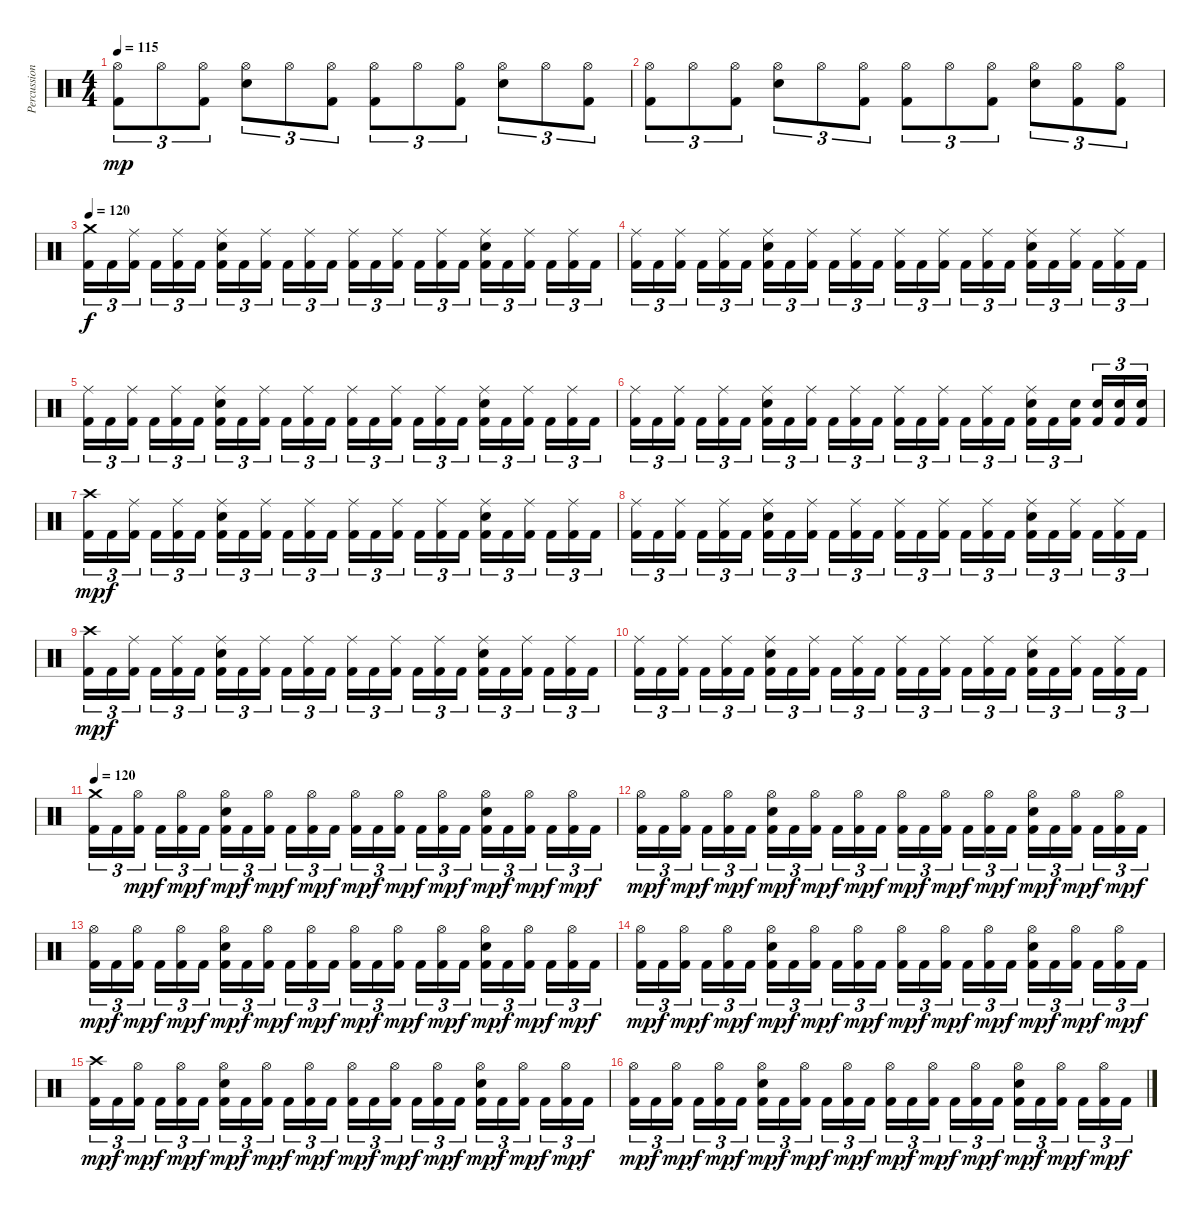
\track ("Percussion" "Percussion") {instrument percussion}
\staff {score}
\articulation defaults
\ts (4 4)
\tempo 115
\clef neutral
\ks c
("Hi-Hat (open)" "Kick (hit) 2").8{tu (3 2) dy mp} "Hi-Hat (open)".8{tu (3 2)} ("Hi-Hat (open)" "Kick (hit) 2").8{tu (3 2)} ("Hi-Hat (open)" "Electric Snare (hit)").8{tu (3 2)} "Hi-Hat (open)".8{tu (3 2)} ("Hi-Hat (open)" "Kick (hit) 2").8{tu (3 2)} ("Hi-Hat (open)" "Kick (hit) 2").8{tu (3 2)} "Hi-Hat (open)".8{tu (3 2)} ("Hi-Hat (open)" "Kick (hit) 2").8{tu (3 2)} ("Hi-Hat (open)" "Electric Snare (hit)").8{tu (3 2)} "Hi-Hat (open)".8{tu (3 2)} ("Hi-Hat (open)" "Kick (hit) 2").8{tu (3 2)} |
("Hi-Hat (open)" "Kick (hit) 2").8{tu (3 2)} "Hi-Hat (open)".8{tu (3 2)} ("Hi-Hat (open)" "Kick (hit) 2").8{tu (3 2)} ("Hi-Hat (open)" "Electric Snare (hit)").8{tu (3 2)} "Hi-Hat (open)".8{tu (3 2)} ("Hi-Hat (open)" "Kick (hit) 2").8{tu (3 2)} ("Hi-Hat (open)" "Kick (hit) 2").8{tu (3 2)} "Hi-Hat (open)".8{tu (3 2)} ("Hi-Hat (open)" "Kick (hit) 2").8{tu (3 2)} ("Hi-Hat (open)" "Electric Snare (hit)").8{tu (3 2)} ("Hi-Hat (open)" "Kick (hit) 2").8{tu (3 2)} ("Hi-Hat (open)" "Kick (hit) 2").8{tu (3 2)} |
\tempo 120
("Crash medium (hit)" "Kick (hit) 2").16{tu (3 2) dy f} "Kick (hit) 2".16{tu (3 2)} ("Ride (middle)" "Kick (hit) 2").16{tu (3 2)} "Kick (hit) 2".16{tu (3 2)} ("Ride (middle)" "Kick (hit) 2").16{tu (3 2)} "Kick (hit) 2".16{tu (3 2)} ("Ride (middle)" "Electric Snare (hit)" "Kick (hit) 2").16{tu (3 2)} "Kick (hit) 2".16{tu (3 2)} ("Ride (middle)" "Kick (hit) 2").16{tu (3 2)} "Kick (hit) 2".16{tu (3 2)} ("Ride (middle)" "Kick (hit) 2").16{tu (3 2)} "Kick (hit) 2".16{tu (3 2)} ("Ride (middle)" "Kick (hit) 2").16{tu (3 2)} "Kick (hit) 2".16{tu (3 2)} ("Ride (middle)" "Kick (hit) 2").16{tu (3 2)} "Kick (hit) 2".16{tu (3 2)} ("Ride (middle)" "Kick (hit) 2").16{tu (3 2)} "Kick (hit) 2".16{tu (3 2)} ("Ride (middle)" "Electric Snare (hit)" "Kick (hit) 2").16{tu (3 2)} "Kick (hit) 2".16{tu (3 2)} ("Ride (middle)" "Kick (hit) 2").16{tu (3 2)} "Kick (hit) 2".16{tu (3 2)} ("Ride (middle)" "Kick (hit) 2").16{tu (3 2)} "Kick (hit) 2".16{tu (3 2)} |
("Ride (middle)" "Kick (hit) 2").16{tu (3 2)} "Kick (hit) 2".16{tu (3 2)} ("Ride (middle)" "Kick (hit) 2").16{tu (3 2)} "Kick (hit) 2".16{tu (3 2)} ("Ride (middle)" "Kick (hit) 2").16{tu (3 2)} "Kick (hit) 2".16{tu (3 2)} ("Ride (middle)" "Electric Snare (hit)" "Kick (hit) 2").16{tu (3 2)} "Kick (hit) 2".16{tu (3 2)} ("Ride (middle)" "Kick (hit) 2").16{tu (3 2)} "Kick (hit) 2".16{tu (3 2)} ("Ride (middle)" "Kick (hit) 2").16{tu (3 2)} "Kick (hit) 2".16{tu (3 2)} ("Ride (middle)" "Kick (hit) 2").16{tu (3 2)} "Kick (hit) 2".16{tu (3 2)} ("Ride (middle)" "Kick (hit) 2").16{tu (3 2)} "Kick (hit) 2".16{tu (3 2)} ("Ride (middle)" "Kick (hit) 2").16{tu (3 2)} "Kick (hit) 2".16{tu (3 2)} ("Ride (middle)" "Electric Snare (hit)" "Kick (hit) 2").16{tu (3 2)} "Kick (hit) 2".16{tu (3 2)} ("Ride (middle)" "Kick (hit) 2").16{tu (3 2)} "Kick (hit) 2".16{tu (3 2)} ("Ride (middle)" "Kick (hit) 2").16{tu (3 2)} "Kick (hit) 2".16{tu (3 2)} |
("Ride (middle)" "Kick (hit) 2").16{tu (3 2)} "Kick (hit) 2".16{tu (3 2)} ("Ride (middle)" "Kick (hit) 2").16{tu (3 2)} "Kick (hit) 2".16{tu (3 2)} ("Ride (middle)" "Kick (hit) 2").16{tu (3 2)} "Kick (hit) 2".16{tu (3 2)} ("Ride (middle)" "Electric Snare (hit)" "Kick (hit) 2").16{tu (3 2)} "Kick (hit) 2".16{tu (3 2)} ("Ride (middle)" "Kick (hit) 2").16{tu (3 2)} "Kick (hit) 2".16{tu (3 2)} ("Ride (middle)" "Kick (hit) 2").16{tu (3 2)} "Kick (hit) 2".16{tu (3 2)} ("Ride (middle)" "Kick (hit) 2").16{tu (3 2)} "Kick (hit) 2".16{tu (3 2)} ("Ride (middle)" "Kick (hit) 2").16{tu (3 2)} "Kick (hit) 2".16{tu (3 2)} ("Ride (middle)" "Kick (hit) 2").16{tu (3 2)} "Kick (hit) 2".16{tu (3 2)} ("Ride (middle)" "Electric Snare (hit)" "Kick (hit) 2").16{tu (3 2)} "Kick (hit) 2".16{tu (3 2)} ("Ride (middle)" "Kick (hit) 2").16{tu (3 2)} "Kick (hit) 2".16{tu (3 2)} ("Ride (middle)" "Kick (hit) 2").16{tu (3 2)} "Kick (hit) 2".16{tu (3 2)} |
("Ride (middle)" "Kick (hit) 2").16{tu (3 2)} "Kick (hit) 2".16{tu (3 2)} ("Ride (middle)" "Kick (hit) 2").16{tu (3 2)} "Kick (hit) 2".16{tu (3 2)} ("Ride (middle)" "Kick (hit) 2").16{tu (3 2)} "Kick (hit) 2".16{tu (3 2)} ("Ride (middle)" "Electric Snare (hit)" "Kick (hit) 2").16{tu (3 2)} "Kick (hit) 2".16{tu (3 2)} ("Ride (middle)" "Kick (hit) 2").16{tu (3 2)} "Kick (hit) 2".16{tu (3 2)} ("Ride (middle)" "Kick (hit) 2").16{tu (3 2)} "Kick (hit) 2".16{tu (3 2)} ("Ride (middle)" "Kick (hit) 2").16{tu (3 2)} "Kick (hit) 2".16{tu (3 2)} ("Ride (middle)" "Kick (hit) 2").16{tu (3 2)} "Kick (hit) 2".16{tu (3 2)} ("Ride (middle)" "Kick (hit) 2").16{tu (3 2)} "Kick (hit) 2".16{tu (3 2)} ("Ride (middle)" "Electric Snare (hit)" "Kick (hit) 2").16{tu (3 2)} "Kick (hit) 2".16{tu (3 2)} ("Electric Snare (hit)" "Kick (hit) 2").16{tu (3 2)} ("Electric Snare (hit)" "Kick (hit) 2").16{tu (3 2)} ("Electric Snare (hit)" "Kick (hit) 2").16{tu (3 2)} ("Electric Snare (hit)" "Kick (hit) 2").16{tu (3 2)} |
("Crash high (hit)" "Kick (hit) 2").16{tu (3 2) dy mp} "Kick (hit) 2".16{tu (3 2) dy f} ("Ride (middle)" "Kick (hit) 2").16{tu (3 2)} "Kick (hit) 2".16{tu (3 2)} ("Ride (middle)" "Kick (hit) 2").16{tu (3 2)} "Kick (hit) 2".16{tu (3 2)} ("Ride (middle)" "Electric Snare (hit)" "Kick (hit) 2").16{tu (3 2)} "Kick (hit) 2".16{tu (3 2)} ("Ride (middle)" "Kick (hit) 2").16{tu (3 2)} "Kick (hit) 2".16{tu (3 2)} ("Ride (middle)" "Kick (hit) 2").16{tu (3 2)} "Kick (hit) 2".16{tu (3 2)} ("Ride (middle)" "Kick (hit) 2").16{tu (3 2)} "Kick (hit) 2".16{tu (3 2)} ("Ride (middle)" "Kick (hit) 2").16{tu (3 2)} "Kick (hit) 2".16{tu (3 2)} ("Ride (middle)" "Kick (hit) 2").16{tu (3 2)} "Kick (hit) 2".16{tu (3 2)} ("Ride (middle)" "Electric Snare (hit)" "Kick (hit) 2").16{tu (3 2)} "Kick (hit) 2".16{tu (3 2)} ("Ride (middle)" "Kick (hit) 2").16{tu (3 2)} "Kick (hit) 2".16{tu (3 2)} ("Ride (middle)" "Kick (hit) 2").16{tu (3 2)} "Kick (hit) 2".16{tu (3 2)} |
("Ride (middle)" "Kick (hit) 2").16{tu (3 2)} "Kick (hit) 2".16{tu (3 2)} ("Ride (middle)" "Kick (hit) 2").16{tu (3 2)} "Kick (hit) 2".16{tu (3 2)} ("Ride (middle)" "Kick (hit) 2").16{tu (3 2)} "Kick (hit) 2".16{tu (3 2)} ("Ride (middle)" "Electric Snare (hit)" "Kick (hit) 2").16{tu (3 2)} "Kick (hit) 2".16{tu (3 2)} ("Ride (middle)" "Kick (hit) 2").16{tu (3 2)} "Kick (hit) 2".16{tu (3 2)} ("Ride (middle)" "Kick (hit) 2").16{tu (3 2)} "Kick (hit) 2".16{tu (3 2)} ("Ride (middle)" "Kick (hit) 2").16{tu (3 2)} "Kick (hit) 2".16{tu (3 2)} ("Ride (middle)" "Kick (hit) 2").16{tu (3 2)} "Kick (hit) 2".16{tu (3 2)} ("Ride (middle)" "Kick (hit) 2").16{tu (3 2)} "Kick (hit) 2".16{tu (3 2)} ("Ride (middle)" "Electric Snare (hit)" "Kick (hit) 2").16{tu (3 2)} "Kick (hit) 2".16{tu (3 2)} ("Ride (middle)" "Kick (hit) 2").16{tu (3 2)} "Kick (hit) 2".16{tu (3 2)} ("Ride (middle)" "Kick (hit) 2").16{tu (3 2)} "Kick (hit) 2".16{tu (3 2)} |
("Crash high (hit)" "Kick (hit) 2").16{tu (3 2) dy mp} "Kick (hit) 2".16{tu (3 2) dy f} ("Ride (middle)" "Kick (hit) 2").16{tu (3 2)} "Kick (hit) 2".16{tu (3 2)} ("Ride (middle)" "Kick (hit) 2").16{tu (3 2)} "Kick (hit) 2".16{tu (3 2)} ("Ride (middle)" "Electric Snare (hit)" "Kick (hit) 2").16{tu (3 2)} "Kick (hit) 2".16{tu (3 2)} ("Ride (middle)" "Kick (hit) 2").16{tu (3 2)} "Kick (hit) 2".16{tu (3 2)} ("Ride (middle)" "Kick (hit) 2").16{tu (3 2)} "Kick (hit) 2".16{tu (3 2)} ("Ride (middle)" "Kick (hit) 2").16{tu (3 2)} "Kick (hit) 2".16{tu (3 2)} ("Ride (middle)" "Kick (hit) 2").16{tu (3 2)} "Kick (hit) 2".16{tu (3 2)} ("Ride (middle)" "Kick (hit) 2").16{tu (3 2)} "Kick (hit) 2".16{tu (3 2)} ("Ride (middle)" "Electric Snare (hit)" "Kick (hit) 2").16{tu (3 2)} "Kick (hit) 2".16{tu (3 2)} ("Ride (middle)" "Kick (hit) 2").16{tu (3 2)} "Kick (hit) 2".16{tu (3 2)} ("Ride (middle)" "Kick (hit) 2").16{tu (3 2)} "Kick (hit) 2".16{tu (3 2)} |
("Ride (middle)" "Kick (hit) 2").16{tu (3 2)} "Kick (hit) 2".16{tu (3 2)} ("Ride (middle)" "Kick (hit) 2").16{tu (3 2)} "Kick (hit) 2".16{tu (3 2)} ("Ride (middle)" "Kick (hit) 2").16{tu (3 2)} "Kick (hit) 2".16{tu (3 2)} ("Ride (middle)" "Electric Snare (hit)" "Kick (hit) 2").16{tu (3 2)} "Kick (hit) 2".16{tu (3 2)} ("Ride (middle)" "Kick (hit) 2").16{tu (3 2)} "Kick (hit) 2".16{tu (3 2)} ("Ride (middle)" "Kick (hit) 2").16{tu (3 2)} "Kick (hit) 2".16{tu (3 2)} ("Ride (middle)" "Kick (hit) 2").16{tu (3 2)} "Kick (hit) 2".16{tu (3 2)} ("Ride (middle)" "Kick (hit) 2").16{tu (3 2)} "Kick (hit) 2".16{tu (3 2)} ("Ride (middle)" "Kick (hit) 2").16{tu (3 2)} "Kick (hit) 2".16{tu (3 2)} ("Ride (middle)" "Electric Snare (hit)" "Kick (hit) 2").16{tu (3 2)} "Kick (hit) 2".16{tu (3 2)} ("Ride (middle)" "Kick (hit) 2").16{tu (3 2)} "Kick (hit) 2".16{tu (3 2)} ("Ride (middle)" "Kick (hit) 2").16{tu (3 2)} "Kick (hit) 2".16{tu (3 2)} |
\tempo 120
("Crash medium (hit)" "Kick (hit) 2").16{tu (3 2)} "Kick (hit) 2".16{tu (3 2)} ("Hi-Hat (open)" "Kick (hit) 2").16{tu (3 2) dy mp} "Kick (hit) 2".16{tu (3 2) dy f} ("Hi-Hat (open)" "Kick (hit) 2").16{tu (3 2) dy mp} "Kick (hit) 2".16{tu (3 2) dy f} ("Hi-Hat (open)" "Electric Snare (hit)" "Kick (hit) 2").16{tu (3 2) dy mp} "Kick (hit) 2".16{tu (3 2) dy f} ("Hi-Hat (open)" "Kick (hit) 2").16{tu (3 2) dy mp} "Kick (hit) 2".16{tu (3 2) dy f} ("Hi-Hat (open)" "Kick (hit) 2").16{tu (3 2) dy mp} "Kick (hit) 2".16{tu (3 2) dy f} ("Hi-Hat (open)" "Kick (hit) 2").16{tu (3 2) dy mp} "Kick (hit) 2".16{tu (3 2) dy f} ("Hi-Hat (open)" "Kick (hit) 2").16{tu (3 2) dy mp} "Kick (hit) 2".16{tu (3 2) dy f} ("Hi-Hat (open)" "Kick (hit) 2").16{tu (3 2) dy mp} "Kick (hit) 2".16{tu (3 2) dy f} ("Hi-Hat (open)" "Electric Snare (hit)" "Kick (hit) 2").16{tu (3 2) dy mp} "Kick (hit) 2".16{tu (3 2) dy f} ("Hi-Hat (open)" "Kick (hit) 2").16{tu (3 2) dy mp} "Kick (hit) 2".16{tu (3 2) dy f} ("Hi-Hat (open)" "Kick (hit) 2").16{tu (3 2) dy mp} "Kick (hit) 2".16{tu (3 2) dy f} |
("Hi-Hat (open)" "Kick (hit) 2").16{tu (3 2) dy mp} "Kick (hit) 2".16{tu (3 2) dy f} ("Hi-Hat (open)" "Kick (hit) 2").16{tu (3 2) dy mp} "Kick (hit) 2".16{tu (3 2) dy f} ("Hi-Hat (open)" "Kick (hit) 2").16{tu (3 2) dy mp} "Kick (hit) 2".16{tu (3 2) dy f} ("Hi-Hat (open)" "Electric Snare (hit)" "Kick (hit) 2").16{tu (3 2) dy mp} "Kick (hit) 2".16{tu (3 2) dy f} ("Hi-Hat (open)" "Kick (hit) 2").16{tu (3 2) dy mp} "Kick (hit) 2".16{tu (3 2) dy f} ("Hi-Hat (open)" "Kick (hit) 2").16{tu (3 2) dy mp} "Kick (hit) 2".16{tu (3 2) dy f} ("Hi-Hat (open)" "Kick (hit) 2").16{tu (3 2) dy mp} "Kick (hit) 2".16{tu (3 2) dy f} ("Hi-Hat (open)" "Kick (hit) 2").16{tu (3 2) dy mp} "Kick (hit) 2".16{tu (3 2) dy f} ("Hi-Hat (open)" "Kick (hit) 2").16{tu (3 2) dy mp} "Kick (hit) 2".16{tu (3 2) dy f} ("Hi-Hat (open)" "Electric Snare (hit)" "Kick (hit) 2").16{tu (3 2) dy mp} "Kick (hit) 2".16{tu (3 2) dy f} ("Hi-Hat (open)" "Kick (hit) 2").16{tu (3 2) dy mp} "Kick (hit) 2".16{tu (3 2) dy f} ("Hi-Hat (open)" "Kick (hit) 2").16{tu (3 2) dy mp} "Kick (hit) 2".16{tu (3 2) dy f} |
("Hi-Hat (open)" "Kick (hit) 2").16{tu (3 2) dy mp} "Kick (hit) 2".16{tu (3 2) dy f} ("Hi-Hat (open)" "Kick (hit) 2").16{tu (3 2) dy mp} "Kick (hit) 2".16{tu (3 2) dy f} ("Hi-Hat (open)" "Kick (hit) 2").16{tu (3 2) dy mp} "Kick (hit) 2".16{tu (3 2) dy f} ("Hi-Hat (open)" "Electric Snare (hit)" "Kick (hit) 2").16{tu (3 2) dy mp} "Kick (hit) 2".16{tu (3 2) dy f} ("Hi-Hat (open)" "Kick (hit) 2").16{tu (3 2) dy mp} "Kick (hit) 2".16{tu (3 2) dy f} ("Hi-Hat (open)" "Kick (hit) 2").16{tu (3 2) dy mp} "Kick (hit) 2".16{tu (3 2) dy f} ("Hi-Hat (open)" "Kick (hit) 2").16{tu (3 2) dy mp} "Kick (hit) 2".16{tu (3 2) dy f} ("Hi-Hat (open)" "Kick (hit) 2").16{tu (3 2) dy mp} "Kick (hit) 2".16{tu (3 2) dy f} ("Hi-Hat (open)" "Kick (hit) 2").16{tu (3 2) dy mp} "Kick (hit) 2".16{tu (3 2) dy f} ("Hi-Hat (open)" "Electric Snare (hit)" "Kick (hit) 2").16{tu (3 2) dy mp} "Kick (hit) 2".16{tu (3 2) dy f} ("Hi-Hat (open)" "Kick (hit) 2").16{tu (3 2) dy mp} "Kick (hit) 2".16{tu (3 2) dy f} ("Hi-Hat (open)" "Kick (hit) 2").16{tu (3 2) dy mp} "Kick (hit) 2".16{tu (3 2) dy f} |
("Hi-Hat (open)" "Kick (hit) 2").16{tu (3 2) dy mp} "Kick (hit) 2".16{tu (3 2) dy f} ("Hi-Hat (open)" "Kick (hit) 2").16{tu (3 2) dy mp} "Kick (hit) 2".16{tu (3 2) dy f} ("Hi-Hat (open)" "Kick (hit) 2").16{tu (3 2) dy mp} "Kick (hit) 2".16{tu (3 2) dy f} ("Hi-Hat (open)" "Electric Snare (hit)" "Kick (hit) 2").16{tu (3 2) dy mp} "Kick (hit) 2".16{tu (3 2) dy f} ("Hi-Hat (open)" "Kick (hit) 2").16{tu (3 2) dy mp} "Kick (hit) 2".16{tu (3 2) dy f} ("Hi-Hat (open)" "Kick (hit) 2").16{tu (3 2) dy mp} "Kick (hit) 2".16{tu (3 2) dy f} ("Hi-Hat (open)" "Kick (hit) 2").16{tu (3 2) dy mp} "Kick (hit) 2".16{tu (3 2) dy f} ("Hi-Hat (open)" "Kick (hit) 2").16{tu (3 2) dy mp} "Kick (hit) 2".16{tu (3 2) dy f} ("Hi-Hat (open)" "Kick (hit) 2").16{tu (3 2) dy mp} "Kick (hit) 2".16{tu (3 2) dy f} ("Hi-Hat (open)" "Electric Snare (hit)" "Kick (hit) 2").16{tu (3 2) dy mp} "Kick (hit) 2".16{tu (3 2) dy f} ("Hi-Hat (open)" "Kick (hit) 2").16{tu (3 2) dy mp} "Kick (hit) 2".16{tu (3 2) dy f} ("Hi-Hat (open)" "Kick (hit) 2").16{tu (3 2) dy mp} "Kick (hit) 2".16{tu (3 2) dy f} |
("Crash high (hit)" "Kick (hit) 2").16{tu (3 2) dy mp} "Kick (hit) 2".16{tu (3 2) dy f} ("Hi-Hat (open)" "Kick (hit) 2").16{tu (3 2) dy mp} "Kick (hit) 2".16{tu (3 2) dy f} ("Hi-Hat (open)" "Kick (hit) 2").16{tu (3 2) dy mp} "Kick (hit) 2".16{tu (3 2) dy f} ("Hi-Hat (open)" "Electric Snare (hit)" "Kick (hit) 2").16{tu (3 2) dy mp} "Kick (hit) 2".16{tu (3 2) dy f} ("Hi-Hat (open)" "Kick (hit) 2").16{tu (3 2) dy mp} "Kick (hit) 2".16{tu (3 2) dy f} ("Hi-Hat (open)" "Kick (hit) 2").16{tu (3 2) dy mp} "Kick (hit) 2".16{tu (3 2) dy f} ("Hi-Hat (open)" "Kick (hit) 2").16{tu (3 2) dy mp} "Kick (hit) 2".16{tu (3 2) dy f} ("Hi-Hat (open)" "Kick (hit) 2").16{tu (3 2) dy mp} "Kick (hit) 2".16{tu (3 2) dy f} ("Hi-Hat (open)" "Kick (hit) 2").16{tu (3 2) dy mp} "Kick (hit) 2".16{tu (3 2) dy f} ("Hi-Hat (open)" "Electric Snare (hit)" "Kick (hit) 2").16{tu (3 2) dy mp} "Kick (hit) 2".16{tu (3 2) dy f} ("Hi-Hat (open)" "Kick (hit) 2").16{tu (3 2) dy mp} "Kick (hit) 2".16{tu (3 2) dy f} ("Hi-Hat (open)" "Kick (hit) 2").16{tu (3 2) dy mp} "Kick (hit) 2".16{tu (3 2) dy f} |
("Hi-Hat (open)" "Kick (hit) 2").16{tu (3 2) dy mp} "Kick (hit) 2".16{tu (3 2) dy f} ("Hi-Hat (open)" "Kick (hit) 2").16{tu (3 2) dy mp} "Kick (hit) 2".16{tu (3 2) dy f} ("Hi-Hat (open)" "Kick (hit) 2").16{tu (3 2) dy mp} "Kick (hit) 2".16{tu (3 2) dy f} ("Hi-Hat (open)" "Electric Snare (hit)" "Kick (hit) 2").16{tu (3 2) dy mp} "Kick (hit) 2".16{tu (3 2) dy f} ("Hi-Hat (open)" "Kick (hit) 2").16{tu (3 2) dy mp} "Kick (hit) 2".16{tu (3 2) dy f} ("Hi-Hat (open)" "Kick (hit) 2").16{tu (3 2) dy mp} "Kick (hit) 2".16{tu (3 2) dy f} ("Hi-Hat (open)" "Kick (hit) 2").16{tu (3 2) dy mp} "Kick (hit) 2".16{tu (3 2) dy f} ("Hi-Hat (open)" "Kick (hit) 2").16{tu (3 2) dy mp} "Kick (hit) 2".16{tu (3 2) dy f} ("Hi-Hat (open)" "Kick (hit) 2").16{tu (3 2) dy mp} "Kick (hit) 2".16{tu (3 2) dy f} ("Hi-Hat (open)" "Electric Snare (hit)" "Kick (hit) 2").16{tu (3 2) dy mp} "Kick (hit) 2".16{tu (3 2) dy f} ("Hi-Hat (open)" "Kick (hit) 2").16{tu (3 2) dy mp} "Kick (hit) 2".16{tu (3 2) dy f} ("Hi-Hat (open)" "Kick (hit) 2").16{tu (3 2) dy mp} "Kick (hit) 2".16{tu (3 2) dy f}
